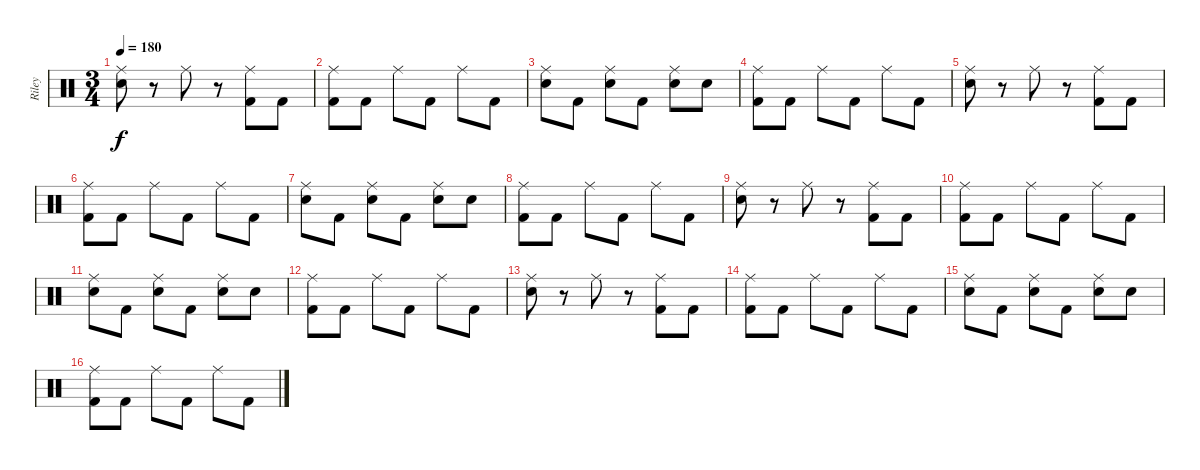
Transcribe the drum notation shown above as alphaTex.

\track ("Riley" "Riley") {instrument percussion}
\staff {score}
\articulation defaults
\ts (3 4)
\tempo 180
\clef neutral
\ks c
("Ride (middle)" "Electric Snare (hit)").8{dy f} r.8 "Ride (middle)".8 r.8 ("Ride (middle)" "Kick (hit) 2").8 "Kick (hit) 2".8 |
("Ride (middle)" "Kick (hit) 2").8 "Kick (hit) 2".8 "Ride (middle)".8 "Kick (hit) 2".8 "Ride (middle)".8 "Kick (hit) 2".8 |
("Ride (middle)" "Electric Snare (hit)").8 "Kick (hit) 2".8 ("Ride (middle)" "Electric Snare (hit)").8 "Kick (hit) 2".8 ("Ride (middle)" "Electric Snare (hit)").8 "Electric Snare (hit)".8 |
("Ride (middle)" "Kick (hit) 2").8 "Kick (hit) 2".8 "Ride (middle)".8 "Kick (hit) 2".8 "Ride (middle)".8 "Kick (hit) 2".8 |
("Ride (middle)" "Electric Snare (hit)").8 r.8 "Ride (middle)".8 r.8 ("Ride (middle)" "Kick (hit) 2").8 "Kick (hit) 2".8 |
("Ride (middle)" "Kick (hit) 2").8 "Kick (hit) 2".8 "Ride (middle)".8 "Kick (hit) 2".8 "Ride (middle)".8 "Kick (hit) 2".8 |
("Ride (middle)" "Electric Snare (hit)").8 "Kick (hit) 2".8 ("Ride (middle)" "Electric Snare (hit)").8 "Kick (hit) 2".8 ("Ride (middle)" "Electric Snare (hit)").8 "Electric Snare (hit)".8 |
("Ride (middle)" "Kick (hit) 2").8 "Kick (hit) 2".8 "Ride (middle)".8 "Kick (hit) 2".8 "Ride (middle)".8 "Kick (hit) 2".8 |
("Ride (middle)" "Electric Snare (hit)").8 r.8 "Ride (middle)".8 r.8 ("Ride (middle)" "Kick (hit) 2").8 "Kick (hit) 2".8 |
("Ride (middle)" "Kick (hit) 2").8 "Kick (hit) 2".8 "Ride (middle)".8 "Kick (hit) 2".8 "Ride (middle)".8 "Kick (hit) 2".8 |
("Ride (middle)" "Electric Snare (hit)").8 "Kick (hit) 2".8 ("Ride (middle)" "Electric Snare (hit)").8 "Kick (hit) 2".8 ("Ride (middle)" "Electric Snare (hit)").8 "Electric Snare (hit)".8 |
("Ride (middle)" "Kick (hit) 2").8 "Kick (hit) 2".8 "Ride (middle)".8 "Kick (hit) 2".8 "Ride (middle)".8 "Kick (hit) 2".8 |
("Ride (middle)" "Electric Snare (hit)").8 r.8 "Ride (middle)".8 r.8 ("Ride (middle)" "Kick (hit) 2").8 "Kick (hit) 2".8 |
("Ride (middle)" "Kick (hit) 2").8 "Kick (hit) 2".8 "Ride (middle)".8 "Kick (hit) 2".8 "Ride (middle)".8 "Kick (hit) 2".8 |
("Ride (middle)" "Electric Snare (hit)").8 "Kick (hit) 2".8 ("Ride (middle)" "Electric Snare (hit)").8 "Kick (hit) 2".8 ("Ride (middle)" "Electric Snare (hit)").8 "Electric Snare (hit)".8 |
("Ride (middle)" "Kick (hit) 2").8 "Kick (hit) 2".8 "Ride (middle)".8 "Kick (hit) 2".8 "Ride (middle)".8 "Kick (hit) 2".8
